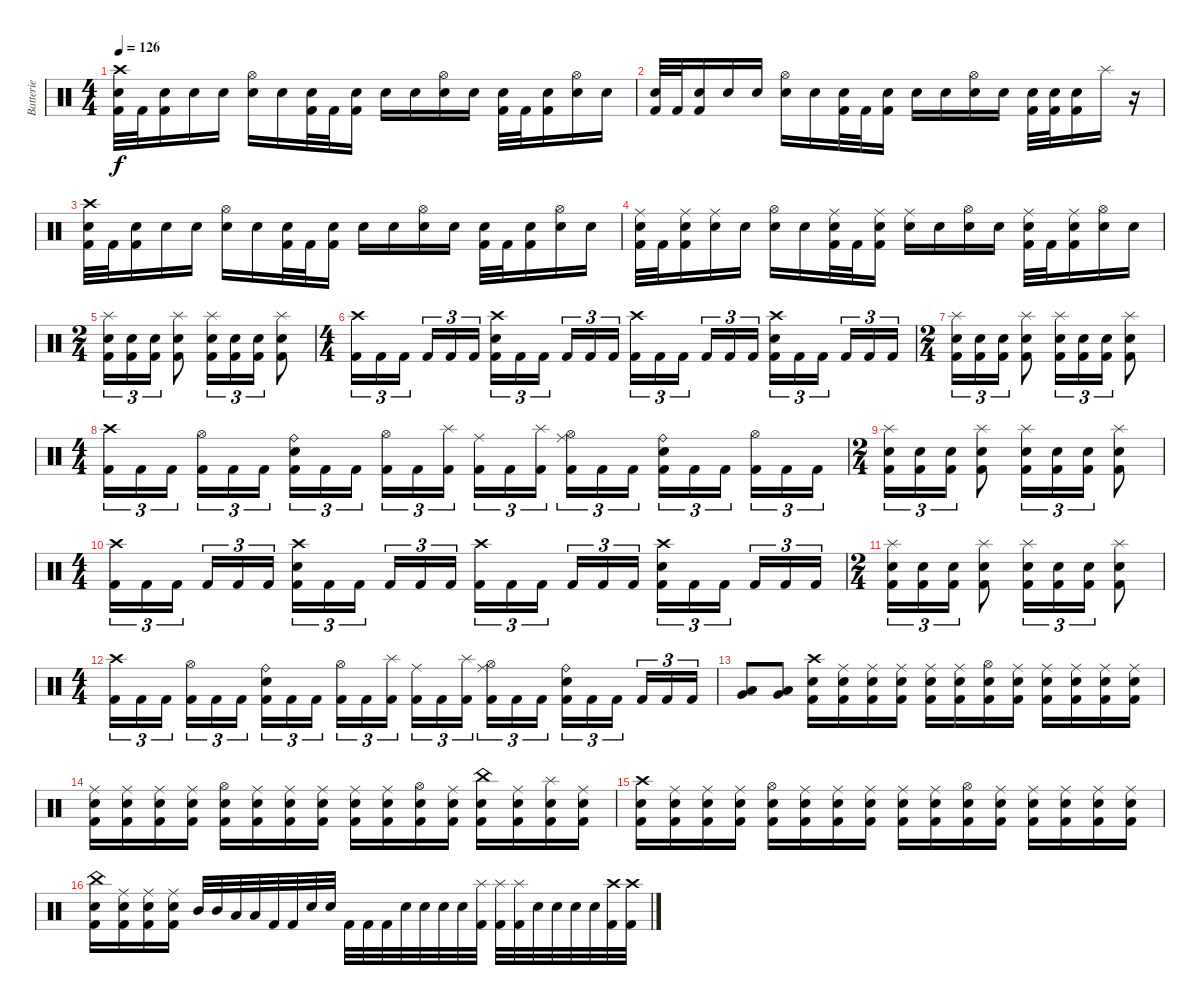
\track ("Batterie" "Batterie") {instrument percussion}
\staff {score}
\articulation defaults
\ts (4 4)
\tempo 126
\clef neutral
\ks c
("Crash high (hit)" "Electric Snare (hit)" "Kick (hit) 2").32{dy f} "Kick (hit) 2".32 ("Electric Snare (hit)" "Kick (hit) 2").16 "Electric Snare (hit)".16 "Electric Snare (hit)".16 ("Hi-Hat (open)" "Electric Snare (hit)").16 "Electric Snare (hit)".16 ("Electric Snare (hit)" "Kick (hit) 2").32 "Kick (hit) 2".32 ("Electric Snare (hit)" "Kick (hit) 2").16 "Electric Snare (hit)".16 "Electric Snare (hit)".16 ("Hi-Hat (open)" "Electric Snare (hit)").16 "Electric Snare (hit)".16 ("Electric Snare (hit)" "Kick (hit) 2").32 "Kick (hit) 2".32 ("Electric Snare (hit)" "Kick (hit) 2").16 ("Hi-Hat (open)" "Electric Snare (hit)").16 "Electric Snare (hit)".16 |
("Electric Snare (hit)" "Kick (hit) 2").32 "Kick (hit) 2".32 ("Electric Snare (hit)" "Kick (hit) 2").16 "Electric Snare (hit)".16 "Electric Snare (hit)".16 ("Hi-Hat (open)" "Electric Snare (hit)").16 "Electric Snare (hit)".16 ("Electric Snare (hit)" "Kick (hit) 2").32 "Kick (hit) 2".32 ("Electric Snare (hit)" "Kick (hit) 2").16 "Electric Snare (hit)".16 "Electric Snare (hit)".16 ("Hi-Hat (open)" "Electric Snare (hit)").16 "Electric Snare (hit)".16 ("Kick (hit) 2" "Electric Snare (hit)").32 ("Kick (hit) 2" "Electric Snare (hit)").32 ("Kick (hit) 2" "Electric Snare (hit)").16 "Splash (hit)".16 r.16 |
("Crash high (hit)" "Electric Snare (hit)" "Kick (hit) 2").32 "Kick (hit) 2".32 ("Electric Snare (hit)" "Kick (hit) 2").16 "Electric Snare (hit)".16 "Electric Snare (hit)".16 ("Hi-Hat (open)" "Electric Snare (hit)").16 "Electric Snare (hit)".16 ("Electric Snare (hit)" "Kick (hit) 2").32 "Kick (hit) 2".32 ("Electric Snare (hit)" "Kick (hit) 2").16 "Electric Snare (hit)".16 "Electric Snare (hit)".16 ("Hi-Hat (open)" "Electric Snare (hit)").16 "Electric Snare (hit)".16 ("Electric Snare (hit)" "Kick (hit) 2").32 "Kick (hit) 2".32 ("Electric Snare (hit)" "Kick (hit) 2").16 ("Hi-Hat (open)" "Electric Snare (hit)").16 "Electric Snare (hit)".16 |
("Ride (middle)" "Electric Snare (hit)" "Kick (hit) 2").32 "Kick (hit) 2".32 ("Ride (middle)" "Electric Snare (hit)" "Kick (hit) 2").16 ("Ride (middle)" "Electric Snare (hit)").16 "Electric Snare (hit)".16 ("Hi-Hat (open)" "Electric Snare (hit)").16 "Electric Snare (hit)".16 ("Ride (middle)" "Electric Snare (hit)" "Kick (hit) 2").32 "Kick (hit) 2".32 ("Ride (middle)" "Electric Snare (hit)" "Kick (hit) 2").16 ("Ride (middle)" "Electric Snare (hit)").16 "Electric Snare (hit)".16 ("Hi-Hat (open)" "Electric Snare (hit)").16 "Electric Snare (hit)".16 ("Ride (middle)" "Electric Snare (hit)" "Kick (hit) 2").32 "Kick (hit) 2".32 ("Ride (middle)" "Electric Snare (hit)" "Kick (hit) 2").16 ("Hi-Hat (open)" "Electric Snare (hit)").16 "Electric Snare (hit)".16 |
\ts (2 4)
("Electric Snare (hit)" "Splash (hit)" "Kick (hit) 2").16{tu (3 2)} ("Electric Snare (hit)" "Kick (hit) 2").16{tu (3 2)} ("Electric Snare (hit)" "Kick (hit) 2").16{tu (3 2)} ("Electric Snare (hit)" "Splash (hit)" "Kick (hit) 2").8 ("Electric Snare (hit)" "Splash (hit)" "Kick (hit) 2").16{tu (3 2)} ("Electric Snare (hit)" "Kick (hit) 2").16{tu (3 2)} ("Electric Snare (hit)" "Kick (hit) 2").16{tu (3 2)} ("Electric Snare (hit)" "Splash (hit)" "Kick (hit) 2").8 |
\ts (4 4)
("Crash high (hit)" "Kick (hit) 2").16{tu (3 2)} "Kick (hit) 2".16{tu (3 2)} "Kick (hit) 2".16{tu (3 2)} "Kick (hit) 2".16{tu (3 2)} "Kick (hit) 2".16{tu (3 2)} "Kick (hit) 2".16{tu (3 2)} ("Electric Snare (hit)" "Crash high (hit)" "Kick (hit) 2").16{tu (3 2)} "Kick (hit) 2".16{tu (3 2)} "Kick (hit) 2".16{tu (3 2)} "Kick (hit) 2".16{tu (3 2)} "Kick (hit) 2".16{tu (3 2)} "Kick (hit) 2".16{tu (3 2)} ("Crash high (hit)" "Kick (hit) 2").16{tu (3 2)} "Kick (hit) 2".16{tu (3 2)} "Kick (hit) 2".16{tu (3 2)} "Kick (hit) 2".16{tu (3 2)} "Kick (hit) 2".16{tu (3 2)} "Kick (hit) 2".16{tu (3 2)} ("Electric Snare (hit)" "Crash high (hit)" "Kick (hit) 2").16{tu (3 2)} "Kick (hit) 2".16{tu (3 2)} "Kick (hit) 2".16{tu (3 2)} "Kick (hit) 2".16{tu (3 2)} "Kick (hit) 2".16{tu (3 2)} "Kick (hit) 2".16{tu (3 2)} |
\ts (2 4)
("Electric Snare (hit)" "Splash (hit)" "Kick (hit) 2").16{tu (3 2)} ("Electric Snare (hit)" "Kick (hit) 2").16{tu (3 2)} ("Electric Snare (hit)" "Kick (hit) 2").16{tu (3 2)} ("Electric Snare (hit)" "Splash (hit)" "Kick (hit) 2").8 ("Electric Snare (hit)" "Splash (hit)" "Kick (hit) 2").16{tu (3 2)} ("Electric Snare (hit)" "Kick (hit) 2").16{tu (3 2)} ("Electric Snare (hit)" "Kick (hit) 2").16{tu (3 2)} ("Electric Snare (hit)" "Splash (hit)" "Kick (hit) 2").8 |
\ts (4 4)
("Crash high (hit)" "Kick (hit) 2").16{tu (3 2)} "Kick (hit) 2".16{tu (3 2)} "Kick (hit) 2".16{tu (3 2)} ("Hi-Hat (open)" "Kick (hit) 2").16{tu (3 2)} "Kick (hit) 2".16{tu (3 2)} "Kick (hit) 2".16{tu (3 2)} ("Ride (bell)" "Electric Snare (hit)" "Kick (hit) 2").16{tu (3 2)} "Kick (hit) 2".16{tu (3 2)} "Kick (hit) 2".16{tu (3 2)} ("Hi-Hat (open)" "Kick (hit) 2").16{tu (3 2)} "Kick (hit) 2".16{tu (3 2)} ("Splash (hit)" "Kick (hit) 2").16{tu (3 2)} ("Ride (middle)" "Kick (hit) 2").16{tu (3 2)} "Kick (hit) 2".16{tu (3 2)} ("Splash (hit)" "Kick (hit) 2").16{tu (3 2)} ("Ride (middle)" "Hi-Hat (open)" "Kick (hit) 2").16{tu (3 2)} "Kick (hit) 2".16{tu (3 2)} "Kick (hit) 2".16{tu (3 2)} ("Ride (bell)" "Electric Snare (hit)" "Kick (hit) 2").16{tu (3 2)} "Kick (hit) 2".16{tu (3 2)} "Kick (hit) 2".16{tu (3 2)} ("Hi-Hat (open)" "Kick (hit) 2").16{tu (3 2)} "Kick (hit) 2".16{tu (3 2)} "Kick (hit) 2".16{tu (3 2)} |
\ts (2 4)
("Electric Snare (hit)" "Splash (hit)" "Kick (hit) 2").16{tu (3 2)} ("Electric Snare (hit)" "Kick (hit) 2").16{tu (3 2)} ("Electric Snare (hit)" "Kick (hit) 2").16{tu (3 2)} ("Electric Snare (hit)" "Splash (hit)" "Kick (hit) 2").8 ("Electric Snare (hit)" "Splash (hit)" "Kick (hit) 2").16{tu (3 2)} ("Electric Snare (hit)" "Kick (hit) 2").16{tu (3 2)} ("Electric Snare (hit)" "Kick (hit) 2").16{tu (3 2)} ("Electric Snare (hit)" "Splash (hit)" "Kick (hit) 2").8 |
\ts (4 4)
("Crash high (hit)" "Kick (hit) 2").16{tu (3 2)} "Kick (hit) 2".16{tu (3 2)} "Kick (hit) 2".16{tu (3 2)} "Kick (hit) 2".16{tu (3 2)} "Kick (hit) 2".16{tu (3 2)} "Kick (hit) 2".16{tu (3 2)} ("Electric Snare (hit)" "Crash high (hit)" "Kick (hit) 2").16{tu (3 2)} "Kick (hit) 2".16{tu (3 2)} "Kick (hit) 2".16{tu (3 2)} "Kick (hit) 2".16{tu (3 2)} "Kick (hit) 2".16{tu (3 2)} "Kick (hit) 2".16{tu (3 2)} ("Crash high (hit)" "Kick (hit) 2").16{tu (3 2)} "Kick (hit) 2".16{tu (3 2)} "Kick (hit) 2".16{tu (3 2)} "Kick (hit) 2".16{tu (3 2)} "Kick (hit) 2".16{tu (3 2)} "Kick (hit) 2".16{tu (3 2)} ("Electric Snare (hit)" "Crash high (hit)" "Kick (hit) 2").16{tu (3 2)} "Kick (hit) 2".16{tu (3 2)} "Kick (hit) 2".16{tu (3 2)} "Kick (hit) 2".16{tu (3 2)} "Kick (hit) 2".16{tu (3 2)} "Kick (hit) 2".16{tu (3 2)} |
\ts (2 4)
("Electric Snare (hit)" "Splash (hit)" "Kick (hit) 2").16{tu (3 2)} ("Electric Snare (hit)" "Kick (hit) 2").16{tu (3 2)} ("Electric Snare (hit)" "Kick (hit) 2").16{tu (3 2)} ("Electric Snare (hit)" "Splash (hit)" "Kick (hit) 2").8 ("Electric Snare (hit)" "Splash (hit)" "Kick (hit) 2").16{tu (3 2)} ("Electric Snare (hit)" "Kick (hit) 2").16{tu (3 2)} ("Electric Snare (hit)" "Kick (hit) 2").16{tu (3 2)} ("Electric Snare (hit)" "Splash (hit)" "Kick (hit) 2").8 |
\ts (4 4)
("Crash high (hit)" "Kick (hit) 2").16{tu (3 2)} "Kick (hit) 2".16{tu (3 2)} "Kick (hit) 2".16{tu (3 2)} ("Hi-Hat (open)" "Kick (hit) 2").16{tu (3 2)} "Kick (hit) 2".16{tu (3 2)} "Kick (hit) 2".16{tu (3 2)} ("Ride (bell)" "Electric Snare (hit)" "Kick (hit) 2").16{tu (3 2)} "Kick (hit) 2".16{tu (3 2)} "Kick (hit) 2".16{tu (3 2)} ("Hi-Hat (open)" "Kick (hit) 2").16{tu (3 2)} "Kick (hit) 2".16{tu (3 2)} ("Splash (hit)" "Kick (hit) 2").16{tu (3 2)} ("Ride (middle)" "Kick (hit) 2").16{tu (3 2)} "Kick (hit) 2".16{tu (3 2)} ("Splash (hit)" "Kick (hit) 2").16{tu (3 2)} ("Ride (middle)" "Hi-Hat (open)" "Kick (hit) 2").16{tu (3 2)} "Kick (hit) 2".16{tu (3 2)} "Kick (hit) 2".16{tu (3 2)} ("Ride (bell)" "Electric Snare (hit)" "Kick (hit) 2").16{tu (3 2)} "Kick (hit) 2".16{tu (3 2)} "Kick (hit) 2".16{tu (3 2)} "Kick (hit) 2".16{tu (3 2)} "Kick (hit) 2".16{tu (3 2)} "Kick (hit) 2".16{tu (3 2)} |
("Very Low Tom (hit)" "Low Tom (hit)").8 ("Very Low Tom (hit)" "Low Tom (hit)").8 ("Crash high (hit)" "Kick (hit) 2" "Electric Snare (hit)").16 ("Ride (middle)" "Kick (hit) 2" "Electric Snare (hit)").16 ("Ride (middle)" "Kick (hit) 2" "Electric Snare (hit)").16 ("Ride (middle)" "Kick (hit) 2" "Electric Snare (hit)").16 ("Ride (middle)" "Kick (hit) 2" "Electric Snare (hit)").16 ("Ride (middle)" "Kick (hit) 2" "Electric Snare (hit)").16 ("Hi-Hat (open)" "Kick (hit) 2" "Electric Snare (hit)").16 ("Ride (middle)" "Kick (hit) 2" "Electric Snare (hit)").16 ("Ride (middle)" "Kick (hit) 2" "Electric Snare (hit)").16 ("Ride (middle)" "Kick (hit) 2" "Electric Snare (hit)").16 ("Ride (middle)" "Kick (hit) 2" "Electric Snare (hit)").16 ("Ride (middle)" "Kick (hit) 2" "Electric Snare (hit)").16 |
("Ride (middle)" "Kick (hit) 2" "Electric Snare (hit)").16 ("Ride (middle)" "Kick (hit) 2" "Electric Snare (hit)").16 ("Ride (middle)" "Kick (hit) 2" "Electric Snare (hit)").16 ("Ride (middle)" "Kick (hit) 2" "Electric Snare (hit)").16 ("Hi-Hat (open)" "Kick (hit) 2" "Electric Snare (hit)").16 ("Ride (middle)" "Kick (hit) 2" "Electric Snare (hit)").16 ("Ride (middle)" "Kick (hit) 2" "Electric Snare (hit)").16 ("Ride (middle)" "Kick (hit) 2" "Electric Snare (hit)").16 ("Ride (middle)" "Kick (hit) 2" "Electric Snare (hit)").16 ("Ride (middle)" "Kick (hit) 2" "Electric Snare (hit)").16 ("Hi-Hat (open)" "Kick (hit) 2" "Electric Snare (hit)").16 ("Ride (middle)" "Kick (hit) 2" "Electric Snare (hit)").16 ("China (hit)" "Kick (hit) 2" "Electric Snare (hit)").16 ("Ride (middle)" "Kick (hit) 2" "Electric Snare (hit)").16 ("Splash (hit)" "Kick (hit) 2" "Electric Snare (hit)").16 ("Ride (middle)" "Kick (hit) 2" "Electric Snare (hit)").16 |
("Crash high (hit)" "Electric Snare (hit)" "Kick (hit) 2").16 ("Ride (middle)" "Electric Snare (hit)" "Kick (hit) 2").16 ("Ride (middle)" "Electric Snare (hit)" "Kick (hit) 2").16 ("Ride (middle)" "Electric Snare (hit)" "Kick (hit) 2").16 ("Hi-Hat (open)" "Electric Snare (hit)" "Kick (hit) 2").16 ("Ride (middle)" "Electric Snare (hit)" "Kick (hit) 2").16 ("Ride (middle)" "Electric Snare (hit)" "Kick (hit) 2").16 ("Ride (middle)" "Electric Snare (hit)" "Kick (hit) 2").16 ("Ride (middle)" "Electric Snare (hit)" "Kick (hit) 2").16 ("Ride (middle)" "Electric Snare (hit)" "Kick (hit) 2").16 ("Hi-Hat (open)" "Electric Snare (hit)" "Kick (hit) 2").16 ("Ride (middle)" "Electric Snare (hit)" "Kick (hit) 2").16 ("Ride (middle)" "Electric Snare (hit)" "Kick (hit) 2").16 ("Ride (middle)" "Electric Snare (hit)" "Kick (hit) 2").16 ("Ride (middle)" "Electric Snare (hit)" "Kick (hit) 2").16 ("Ride (middle)" "Electric Snare (hit)" "Kick (hit) 2").16 |
("China (hit)" "Kick (hit) 2" "Electric Snare (hit)").16 ("Ride (middle)" "Kick (hit) 2" "Electric Snare (hit)").16 ("Ride (middle)" "Kick (hit) 2" "Electric Snare (hit)").16 ("Ride (middle)" "Kick (hit) 2" "Electric Snare (hit)").16 "Mid Tom (hit)".32 "Mid Tom (hit)".32 "Low Tom (hit)".32 "Low Tom (hit)".32 "Kick (hit) 2".32 "Kick (hit) 2".32 "Electric Snare (hit)".32 "Electric Snare (hit)".32 "Kick (hit) 2".32 "Kick (hit) 2".32 "Kick (hit) 2".32 "Electric Snare (hit)".32 "Electric Snare (hit)".32 "Electric Snare (hit)".32 "Electric Snare (hit)".32 ("Splash (hit)" "Kick (hit) 2").32 ("Splash (hit)" "Kick (hit) 2").32 ("Splash (hit)" "Kick (hit) 2").32 "Electric Snare (hit)".32 "Electric Snare (hit)".32 "Electric Snare (hit)".32 "Electric Snare (hit)".32 ("Crash high (hit)" "Kick (hit) 2").32 ("Crash high (hit)" "Kick (hit) 2").32
